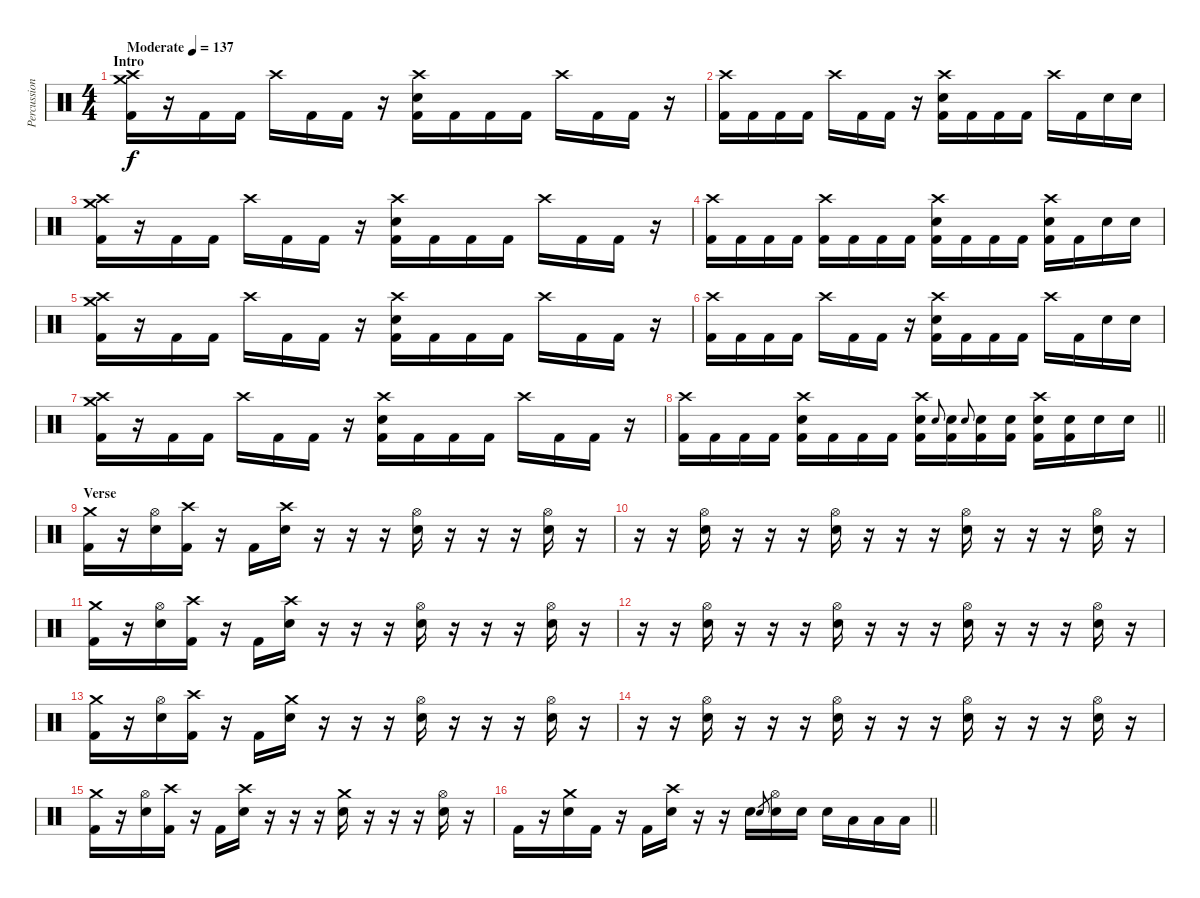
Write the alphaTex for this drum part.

\track ("Percussion" "Percussion") {instrument percussion}
\staff {score}
\articulation defaults
\ts (4 4)
\section ("" "Intro")
\tempo (137 "Moderate")
\clef neutral
\ks c
("Crash high (hit)" "Crash medium (hit)" "Kick (hit) 2").16{dy f} r.16 "Kick (hit) 2".16 "Kick (hit) 2".16 "Crash high (hit)".16 "Kick (hit) 2".16 "Kick (hit) 2".16 r.16 ("Crash high (hit)" "Electric Snare (hit)" "Kick (hit) 2").16 "Kick (hit) 2".16 "Kick (hit) 2".16 "Kick (hit) 2".16 "Crash high (hit)".16 "Kick (hit) 2".16 "Kick (hit) 2".16 r.16 |
("Crash high (hit)" "Kick (hit) 2").16 "Kick (hit) 2".16 "Kick (hit) 2".16 "Kick (hit) 2".16 "Crash high (hit)".16 "Kick (hit) 2".16 "Kick (hit) 2".16 r.16 ("Crash high (hit)" "Electric Snare (hit)" "Kick (hit) 2").16 "Kick (hit) 2".16 "Kick (hit) 2".16 "Kick (hit) 2".16 "Crash high (hit)".16 "Kick (hit) 2".16 "Electric Snare (hit)".16 "Electric Snare (hit)".16 |
("Crash high (hit)" "Crash medium (hit)" "Kick (hit) 2").16 r.16 "Kick (hit) 2".16 "Kick (hit) 2".16 "Crash high (hit)".16 "Kick (hit) 2".16 "Kick (hit) 2".16 r.16 ("Crash high (hit)" "Electric Snare (hit)" "Kick (hit) 2").16 "Kick (hit) 2".16 "Kick (hit) 2".16 "Kick (hit) 2".16 "Crash high (hit)".16 "Kick (hit) 2".16 "Kick (hit) 2".16 r.16 |
("Crash high (hit)" "Kick (hit) 2").16 "Kick (hit) 2".16 "Kick (hit) 2".16 "Kick (hit) 2".16 ("Crash high (hit)" "Kick (hit) 2").16 "Kick (hit) 2".16 "Kick (hit) 2".16 "Kick (hit) 2".16 ("Crash high (hit)" "Electric Snare (hit)" "Kick (hit) 2").16 "Kick (hit) 2".16 "Kick (hit) 2".16 "Kick (hit) 2".16 ("Crash high (hit)" "Electric Snare (hit)" "Kick (hit) 2").16 "Kick (hit) 2".16 "Electric Snare (hit)".16 "Electric Snare (hit)".16 |
("Crash high (hit)" "Crash medium (hit)" "Kick (hit) 2").16 r.16 "Kick (hit) 2".16 "Kick (hit) 2".16 "Crash high (hit)".16 "Kick (hit) 2".16 "Kick (hit) 2".16 r.16 ("Crash high (hit)" "Electric Snare (hit)" "Kick (hit) 2").16 "Kick (hit) 2".16 "Kick (hit) 2".16 "Kick (hit) 2".16 "Crash high (hit)".16 "Kick (hit) 2".16 "Kick (hit) 2".16 r.16 |
("Crash high (hit)" "Kick (hit) 2").16 "Kick (hit) 2".16 "Kick (hit) 2".16 "Kick (hit) 2".16 "Crash high (hit)".16 "Kick (hit) 2".16 "Kick (hit) 2".16 r.16 ("Crash high (hit)" "Electric Snare (hit)" "Kick (hit) 2").16 "Kick (hit) 2".16 "Kick (hit) 2".16 "Kick (hit) 2".16 "Crash high (hit)".16 "Kick (hit) 2".16 "Electric Snare (hit)".16 "Electric Snare (hit)".16 |
("Crash high (hit)" "Crash medium (hit)" "Kick (hit) 2").16 r.16 "Kick (hit) 2".16 "Kick (hit) 2".16 "Crash high (hit)".16 "Kick (hit) 2".16 "Kick (hit) 2".16 r.16 ("Crash high (hit)" "Electric Snare (hit)" "Kick (hit) 2").16 "Kick (hit) 2".16 "Kick (hit) 2".16 "Kick (hit) 2".16 "Crash high (hit)".16 "Kick (hit) 2".16 "Kick (hit) 2".16 r.16 |
\barLineRight lightlight
("Crash high (hit)" "Kick (hit) 2").16 "Kick (hit) 2".16 "Kick (hit) 2".16 "Kick (hit) 2".16 ("Crash high (hit)" "Electric Snare (hit)" "Kick (hit) 2").16 "Kick (hit) 2".16 "Kick (hit) 2".16 "Kick (hit) 2".16 ("Crash high (hit)" "Electric Snare (hit)" "Kick (hit) 2").16 "Electric Snare (hit)".8{gr onbeat} ("Electric Snare (hit)" "Kick (hit) 2").16 "Electric Snare (hit)".8{gr onbeat} ("Electric Snare (hit)" "Kick (hit) 2").16 ("Electric Snare (hit)" "Kick (hit) 2").16 ("Crash high (hit)" "Electric Snare (hit)" "Kick (hit) 2").16 ("Electric Snare (hit)" "Kick (hit) 2").16 "Electric Snare (hit)".16 "Electric Snare (hit)".16 |
\section ("" "Verse")
("Crash medium (hit)" "Kick (hit) 2").16 r.16 ("Hi-Hat (open)" "Electric Snare (hit)").16 ("Crash high (hit)" "Kick (hit) 2").16 r.16 "Kick (hit) 2".16 ("Crash high (hit)" "Electric Snare (hit)").16 r.16 r.16 r.16 ("Hi-Hat (open)" "Electric Snare (hit)").16 r.16 r.16 r.16 ("Hi-Hat (open)" "Electric Snare (hit)").16 r.16 |
r.16 r.16 ("Hi-Hat (open)" "Electric Snare (hit)").16 r.16 r.16 r.16 ("Hi-Hat (open)" "Electric Snare (hit)").16 r.16 r.16 r.16 ("Hi-Hat (open)" "Electric Snare (hit)").16 r.16 r.16 r.16 ("Hi-Hat (open)" "Electric Snare (hit)").16 r.16 |
("Crash medium (hit)" "Kick (hit) 2").16 r.16 ("Hi-Hat (open)" "Electric Snare (hit)").16 ("Crash high (hit)" "Kick (hit) 2").16 r.16 "Kick (hit) 2".16 ("Crash high (hit)" "Electric Snare (hit)").16 r.16 r.16 r.16 ("Hi-Hat (open)" "Electric Snare (hit)").16 r.16 r.16 r.16 ("Hi-Hat (open)" "Electric Snare (hit)").16 r.16 |
r.16 r.16 ("Hi-Hat (open)" "Electric Snare (hit)").16 r.16 r.16 r.16 ("Hi-Hat (open)" "Electric Snare (hit)").16 r.16 r.16 r.16 ("Hi-Hat (open)" "Electric Snare (hit)").16 r.16 r.16 r.16 ("Hi-Hat (open)" "Electric Snare (hit)").16 r.16 |
("Crash medium (hit)" "Kick (hit) 2").16 r.16 ("Hi-Hat (open)" "Electric Snare (hit)").16 ("Crash high (hit)" "Kick (hit) 2").16 r.16 "Kick (hit) 2".16 ("Crash medium (hit)" "Electric Snare (hit)").16 r.16 r.16 r.16 ("Hi-Hat (open)" "Electric Snare (hit)").16 r.16 r.16 r.16 ("Hi-Hat (open)" "Electric Snare (hit)").16 r.16 |
r.16 r.16 ("Hi-Hat (open)" "Electric Snare (hit)").16 r.16 r.16 r.16 ("Hi-Hat (open)" "Electric Snare (hit)").16 r.16 r.16 r.16 ("Hi-Hat (open)" "Electric Snare (hit)").16 r.16 r.16 r.16 ("Hi-Hat (open)" "Electric Snare (hit)").16 r.16 |
("Crash medium (hit)" "Kick (hit) 2").16 r.16 ("Hi-Hat (open)" "Electric Snare (hit)").16 ("Crash high (hit)" "Kick (hit) 2").16 r.16 "Kick (hit) 2".16 ("Crash high (hit)" "Electric Snare (hit)").16 r.16 r.16 r.16 ("Crash medium (hit)" "Electric Snare (hit)").16 r.16 r.16 r.16 ("Hi-Hat (open)" "Electric Snare (hit)").16 r.16 |
\barLineRight lightlight "Kick (hit) 2".16
r.16 ("Crash medium (hit)" "Electric Snare (hit)").16 "Kick (hit) 2".16 r.16 "Kick (hit) 2".16 ("Crash high (hit)" "Electric Snare (hit)").16 r.16 r.16 "Electric Snare (hit)".16 "Electric Snare (hit)".8{gr} ("Hi-Hat (open)" "Electric Snare (hit)").16 "Electric Snare (hit)".16 "Electric Snare (hit)".16 "Low Tom (hit)".16 "Low Tom (hit)".16 "Low Floor Tom (hit)".16
